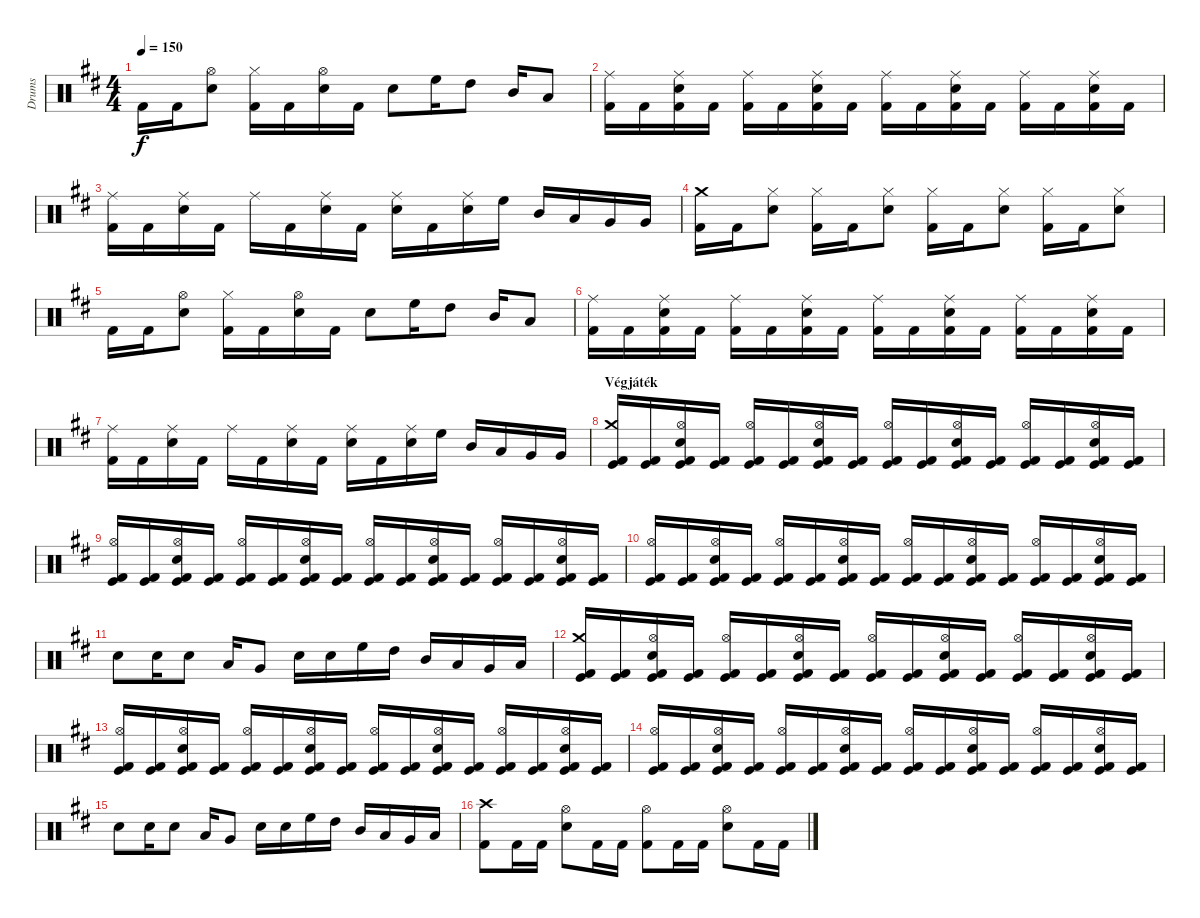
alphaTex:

\track ("Drums" "Drums") {instrument percussion}
\staff {score}
\articulation defaults
\ts (4 4)
\tempo 150
\clef neutral
\ks d "Kick (hit) 2".16{dy f} "Kick (hit) 2".16
("Hi-Hat (open)" "Snare (hit) 2").8 ("Hi-Hat (closed)" "Kick (hit) 2").16 "Kick (hit) 2".16 ("Hi-Hat (open)" "Snare (hit) 2").16 "Kick (hit) 2".16 "Snare (hit) 2".8 "High Floor Tom (hit)".16 "High Tom (hit)".8 "Mid Tom (hit)".16 "Low Tom (hit)".8 |
("Ride (middle)" "Kick (hit) 2").16 "Kick (hit) 2".16 ("Ride (middle)" "Snare (hit) 2" "Kick (hit) 2").16 "Kick (hit) 2".16 ("Ride (middle)" "Kick (hit) 2").16 "Kick (hit) 2".16 ("Ride (middle)" "Snare (hit) 2" "Kick (hit) 2").16 "Kick (hit) 2".16 ("Ride (middle)" "Kick (hit) 2").16 "Kick (hit) 2".16 ("Ride (middle)" "Snare (hit) 2" "Kick (hit) 2").16 "Kick (hit) 2".16 ("Ride (middle)" "Kick (hit) 2").16 "Kick (hit) 2".16 ("Ride (middle)" "Snare (hit) 2" "Kick (hit) 2").16 "Kick (hit) 2".16 |
("Ride (middle)" "Kick (hit) 2").16 "Kick (hit) 2".16 ("Ride (middle)" "Snare (hit) 2").16 "Kick (hit) 2".16 "Ride (middle)".16 "Kick (hit) 2".16 ("Ride (middle)" "Snare (hit) 2").16 "Kick (hit) 2".16 ("Ride (middle)" "Snare (hit) 2").16 "Kick (hit) 2".16 ("Ride (middle)" "Snare (hit) 2").16 "High Floor Tom (hit)".16 "Mid Tom (hit)".16 "Low Tom (hit)".16 "Very Low Tom (hit)".16 "Very Low Tom (hit)".16 |
("Crash medium (hit)" "Kick (hit) 2").16 "Kick (hit) 2".16 ("Hi-Hat (closed)" "Snare (hit) 2").8 ("Hi-Hat (closed)" "Kick (hit) 2").16 "Kick (hit) 2".16 ("Hi-Hat (closed)" "Snare (hit) 2").8 ("Hi-Hat (closed)" "Kick (hit) 2").16 "Kick (hit) 2".16 ("Hi-Hat (closed)" "Snare (hit) 2").8 ("Hi-Hat (closed)" "Kick (hit) 2").16 "Kick (hit) 2".16 ("Hi-Hat (closed)" "Snare (hit) 2").8 |
"Kick (hit) 2".16 "Kick (hit) 2".16 ("Hi-Hat (open)" "Snare (hit) 2").8 ("Hi-Hat (closed)" "Kick (hit) 2").16 "Kick (hit) 2".16 ("Hi-Hat (open)" "Snare (hit) 2").16 "Kick (hit) 2".16 "Snare (hit) 2".8 "High Floor Tom (hit)".16 "High Tom (hit)".8 "Mid Tom (hit)".16 "Low Tom (hit)".8 |
("Ride (middle)" "Kick (hit) 2").16 "Kick (hit) 2".16 ("Ride (middle)" "Snare (hit) 2" "Kick (hit) 2").16 "Kick (hit) 2".16 ("Ride (middle)" "Kick (hit) 2").16 "Kick (hit) 2".16 ("Ride (middle)" "Snare (hit) 2" "Kick (hit) 2").16 "Kick (hit) 2".16 ("Ride (middle)" "Kick (hit) 2").16 "Kick (hit) 2".16 ("Ride (middle)" "Snare (hit) 2" "Kick (hit) 2").16 "Kick (hit) 2".16 ("Ride (middle)" "Kick (hit) 2").16 "Kick (hit) 2".16 ("Ride (middle)" "Snare (hit) 2" "Kick (hit) 2").16 "Kick (hit) 2".16 |
("Ride (middle)" "Kick (hit) 2").16 "Kick (hit) 2".16 ("Ride (middle)" "Snare (hit) 2").16 "Kick (hit) 2".16 "Ride (middle)".16 "Kick (hit) 2".16 ("Ride (middle)" "Snare (hit) 2").16 "Kick (hit) 2".16 ("Ride (middle)" "Snare (hit) 2").16 "Kick (hit) 2".16 ("Ride (middle)" "Snare (hit) 2").16 "High Floor Tom (hit)".16 "Mid Tom (hit)".16 "Low Tom (hit)".16 "Very Low Tom (hit)".16 "Very Low Tom (hit)".16 |
\section ("" "Végjáték")
("Crash medium (hit)" "Kick (hit) 2" "Kick (hit)").16 ("Kick (hit) 2" "Kick (hit)").16 ("Hi-Hat (open)" "Snare (hit) 2" "Kick (hit) 2" "Kick (hit)").16 ("Kick (hit) 2" "Kick (hit)").16 ("Hi-Hat (open)" "Kick (hit) 2" "Kick (hit)").16 ("Kick (hit) 2" "Kick (hit)").16 ("Hi-Hat (open)" "Snare (hit) 2" "Kick (hit) 2" "Kick (hit)").16 ("Kick (hit) 2" "Kick (hit)").16 ("Hi-Hat (open)" "Kick (hit) 2" "Kick (hit)").16 ("Kick (hit) 2" "Kick (hit)").16 ("Hi-Hat (open)" "Snare (hit) 2" "Kick (hit) 2" "Kick (hit)").16 ("Kick (hit) 2" "Kick (hit)").16 ("Hi-Hat (open)" "Kick (hit) 2" "Kick (hit)").16 ("Kick (hit) 2" "Kick (hit)").16 ("Hi-Hat (open)" "Snare (hit) 2" "Kick (hit) 2" "Kick (hit)").16 ("Kick (hit) 2" "Kick (hit)").16 |
("Hi-Hat (open)" "Kick (hit) 2" "Kick (hit)").16 ("Kick (hit) 2" "Kick (hit)").16 ("Hi-Hat (open)" "Snare (hit) 2" "Kick (hit) 2" "Kick (hit)").16 ("Kick (hit) 2" "Kick (hit)").16 ("Hi-Hat (open)" "Kick (hit) 2" "Kick (hit)").16 ("Kick (hit) 2" "Kick (hit)").16 ("Hi-Hat (open)" "Snare (hit) 2" "Kick (hit) 2" "Kick (hit)").16 ("Kick (hit) 2" "Kick (hit)").16 ("Hi-Hat (open)" "Kick (hit) 2" "Kick (hit)").16 ("Kick (hit) 2" "Kick (hit)").16 ("Hi-Hat (open)" "Snare (hit) 2" "Kick (hit) 2" "Kick (hit)").16 ("Kick (hit) 2" "Kick (hit)").16 ("Hi-Hat (open)" "Kick (hit) 2" "Kick (hit)").16 ("Kick (hit) 2" "Kick (hit)").16 ("Hi-Hat (open)" "Snare (hit) 2" "Kick (hit) 2" "Kick (hit)").16 ("Kick (hit) 2" "Kick (hit)").16 |
("Hi-Hat (open)" "Kick (hit) 2" "Kick (hit)").16 ("Kick (hit) 2" "Kick (hit)").16 ("Hi-Hat (open)" "Snare (hit) 2" "Kick (hit) 2" "Kick (hit)").16 ("Kick (hit) 2" "Kick (hit)").16 ("Hi-Hat (open)" "Kick (hit) 2" "Kick (hit)").16 ("Kick (hit) 2" "Kick (hit)").16 ("Hi-Hat (open)" "Snare (hit) 2" "Kick (hit) 2" "Kick (hit)").16 ("Kick (hit) 2" "Kick (hit)").16 ("Hi-Hat (open)" "Kick (hit) 2" "Kick (hit)").16 ("Kick (hit) 2" "Kick (hit)").16 ("Hi-Hat (open)" "Snare (hit) 2" "Kick (hit) 2" "Kick (hit)").16 ("Kick (hit) 2" "Kick (hit)").16 ("Hi-Hat (open)" "Kick (hit) 2" "Kick (hit)").16 ("Kick (hit) 2" "Kick (hit)").16 ("Hi-Hat (open)" "Snare (hit) 2" "Kick (hit) 2" "Kick (hit)").16 ("Kick (hit) 2" "Kick (hit)").16 |
"Snare (hit) 2".8 "Snare (hit) 2".16 "Snare (hit) 2".8 "Low Tom (hit)".16 "Very Low Tom (hit)".8 "Snare (hit) 2".16 "Snare (hit) 2".16 "High Floor Tom (hit)".16 "High Tom (hit)".16 "Mid Tom (hit)".16 "Low Tom (hit)".16 "Very Low Tom (hit)".16 "Low Floor Tom (hit)".16 |
("Crash medium (hit)" "Kick (hit) 2" "Kick (hit)").16 ("Kick (hit) 2" "Kick (hit)").16 ("Hi-Hat (open)" "Snare (hit) 2" "Kick (hit) 2" "Kick (hit)").16 ("Kick (hit) 2" "Kick (hit)").16 ("Hi-Hat (open)" "Kick (hit) 2" "Kick (hit)").16 ("Kick (hit) 2" "Kick (hit)").16 ("Hi-Hat (open)" "Snare (hit) 2" "Kick (hit) 2" "Kick (hit)").16 ("Kick (hit) 2" "Kick (hit)").16 ("Hi-Hat (open)" "Kick (hit) 2" "Kick (hit)").16 ("Kick (hit) 2" "Kick (hit)").16 ("Hi-Hat (open)" "Snare (hit) 2" "Kick (hit) 2" "Kick (hit)").16 ("Kick (hit) 2" "Kick (hit)").16 ("Hi-Hat (open)" "Kick (hit) 2" "Kick (hit)").16 ("Kick (hit) 2" "Kick (hit)").16 ("Hi-Hat (open)" "Snare (hit) 2" "Kick (hit) 2" "Kick (hit)").16 ("Kick (hit) 2" "Kick (hit)").16 |
("Hi-Hat (open)" "Kick (hit) 2" "Kick (hit)").16 ("Kick (hit) 2" "Kick (hit)").16 ("Hi-Hat (open)" "Snare (hit) 2" "Kick (hit) 2" "Kick (hit)").16 ("Kick (hit) 2" "Kick (hit)").16 ("Hi-Hat (open)" "Kick (hit) 2" "Kick (hit)").16 ("Kick (hit) 2" "Kick (hit)").16 ("Hi-Hat (open)" "Snare (hit) 2" "Kick (hit) 2" "Kick (hit)").16 ("Kick (hit) 2" "Kick (hit)").16 ("Hi-Hat (open)" "Kick (hit) 2" "Kick (hit)").16 ("Kick (hit) 2" "Kick (hit)").16 ("Hi-Hat (open)" "Snare (hit) 2" "Kick (hit) 2" "Kick (hit)").16 ("Kick (hit) 2" "Kick (hit)").16 ("Hi-Hat (open)" "Kick (hit) 2" "Kick (hit)").16 ("Kick (hit) 2" "Kick (hit)").16 ("Hi-Hat (open)" "Snare (hit) 2" "Kick (hit) 2" "Kick (hit)").16 ("Kick (hit) 2" "Kick (hit)").16 |
("Hi-Hat (open)" "Kick (hit) 2" "Kick (hit)").16 ("Kick (hit) 2" "Kick (hit)").16 ("Hi-Hat (open)" "Snare (hit) 2" "Kick (hit) 2" "Kick (hit)").16 ("Kick (hit) 2" "Kick (hit)").16 ("Hi-Hat (open)" "Kick (hit) 2" "Kick (hit)").16 ("Kick (hit) 2" "Kick (hit)").16 ("Hi-Hat (open)" "Snare (hit) 2" "Kick (hit) 2" "Kick (hit)").16 ("Kick (hit) 2" "Kick (hit)").16 ("Hi-Hat (open)" "Kick (hit) 2" "Kick (hit)").16 ("Kick (hit) 2" "Kick (hit)").16 ("Hi-Hat (open)" "Snare (hit) 2" "Kick (hit) 2" "Kick (hit)").16 ("Kick (hit) 2" "Kick (hit)").16 ("Hi-Hat (open)" "Kick (hit) 2" "Kick (hit)").16 ("Kick (hit) 2" "Kick (hit)").16 ("Hi-Hat (open)" "Snare (hit) 2" "Kick (hit) 2" "Kick (hit)").16 ("Kick (hit) 2" "Kick (hit)").16 |
"Snare (hit) 2".8 "Snare (hit) 2".16 "Snare (hit) 2".8 "Low Tom (hit)".16 "Very Low Tom (hit)".8 "Snare (hit) 2".16 "Snare (hit) 2".16 "High Floor Tom (hit)".16 "High Tom (hit)".16 "Mid Tom (hit)".16 "Low Tom (hit)".16 "Very Low Tom (hit)".16 "Low Floor Tom (hit)".16 |
("Crash high (hit)" "Kick (hit) 2").8 "Kick (hit) 2".16 "Kick (hit) 2".16 ("Hi-Hat (open)" "Snare (hit) 2").8 "Kick (hit) 2".16 "Kick (hit) 2".16 ("Hi-Hat (open)" "Kick (hit) 2").8 "Kick (hit) 2".16 "Kick (hit) 2".16 ("Hi-Hat (open)" "Snare (hit) 2").8 "Kick (hit) 2".16 "Kick (hit) 2".16
